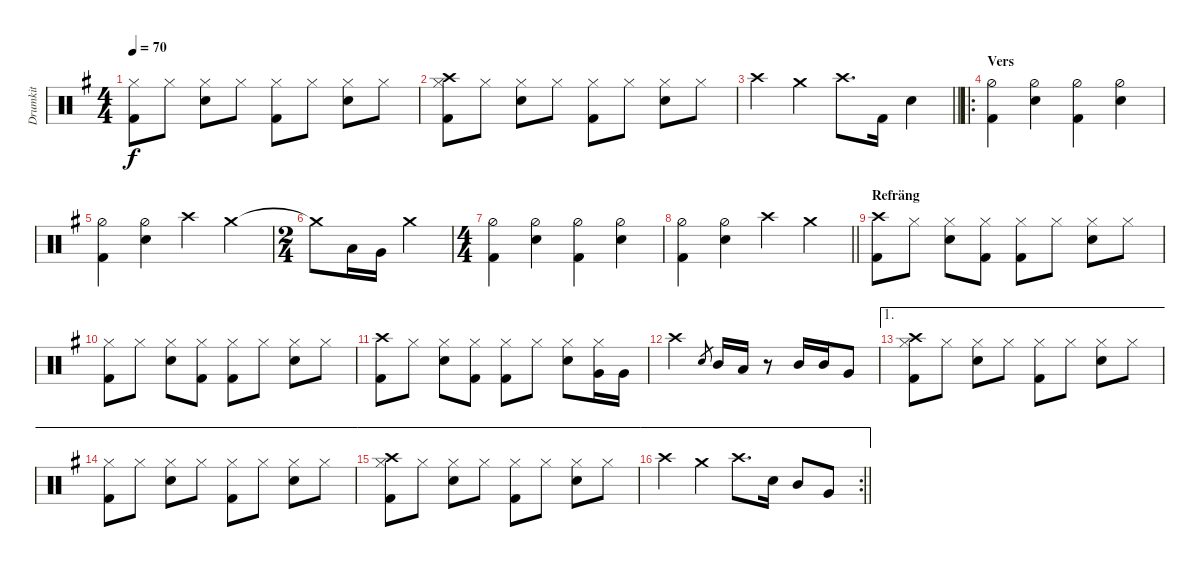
\track ("Drumkit" "Drumkit") {instrument percussion}
\staff {score}
\articulation defaults
\ts (4 4)
\tempo 70
\clef neutral
\ks eminor
("Hi-Hat (closed)" "Kick (hit) 2").8{dy f} "Hi-Hat (closed)".8 ("Hi-Hat (closed)" "Snare (hit) 2").8 "Hi-Hat (closed)".8 ("Hi-Hat (closed)" "Kick (hit) 2").8 "Hi-Hat (closed)".8 ("Hi-Hat (closed)" "Snare (hit) 2").8 "Hi-Hat (closed)".8 |
("Hi-Hat (closed)" "Kick (hit) 2" "Crash high (hit)").8 "Hi-Hat (closed)".8 ("Hi-Hat (closed)" "Snare (hit) 2").8 "Hi-Hat (closed)".8 ("Hi-Hat (closed)" "Kick (hit) 2").8 "Hi-Hat (closed)".8 ("Hi-Hat (closed)" "Snare (hit) 2").8 "Hi-Hat (closed)".8 |
\barLineRight lightlight "Crash high (hit)".4 "Crash medium (hit)".4 "Crash high (hit)".8{d} "Kick (hit) 2".16 "Snare (hit) 2".4
|
\ro
\section ("" "Vers")
("Hi-Hat (half)" "Kick (hit) 2").4 ("Hi-Hat (half)" "Snare (hit) 2").4 ("Hi-Hat (half)" "Kick (hit) 2").4 ("Hi-Hat (half)" "Snare (hit) 2").4 |
("Hi-Hat (half)" "Kick (hit) 2").4 ("Hi-Hat (half)" "Snare (hit) 2").4 "Crash high (hit)".4 "Crash medium (hit)".4 |
\ts (2 4)
"Crash medium (hit)"{t}.8 "Low Tom (hit)".16 "Very Low Tom (hit)".16 "Crash medium (hit)".4 |
\ts (4 4)
("Hi-Hat (half)" "Kick (hit) 2").4 ("Hi-Hat (half)" "Snare (hit) 2").4 ("Hi-Hat (half)" "Kick (hit) 2").4 ("Hi-Hat (half)" "Snare (hit) 2").4 |
\barLineRight lightlight
("Hi-Hat (half)" "Kick (hit) 2").4 ("Hi-Hat (half)" "Snare (hit) 2").4 "Crash high (hit)".4 "Crash medium (hit)".4 |
\section ("" "Refräng")
("Crash high (hit)" "Kick (hit) 2").8 "Hi-Hat (closed)".8 ("Snare (hit) 2" "Hi-Hat (closed)").8 ("Kick (hit) 2" "Hi-Hat (closed)").8 ("Kick (hit) 2" "Hi-Hat (closed)").8 "Hi-Hat (closed)".8 ("Snare (hit) 2" "Hi-Hat (closed)").8 "Hi-Hat (closed)".8 |
("Hi-Hat (closed)" "Kick (hit) 2").8 "Hi-Hat (closed)".8 ("Snare (hit) 2" "Hi-Hat (closed)").8 ("Kick (hit) 2" "Hi-Hat (closed)").8 ("Kick (hit) 2" "Hi-Hat (closed)").8 "Hi-Hat (closed)".8 ("Snare (hit) 2" "Hi-Hat (closed)").8 "Hi-Hat (closed)".8 |
("Crash high (hit)" "Kick (hit) 2").8 "Hi-Hat (closed)".8 ("Snare (hit) 2" "Hi-Hat (closed)").8 ("Kick (hit) 2" "Hi-Hat (closed)").8 ("Kick (hit) 2" "Hi-Hat (closed)").8 "Hi-Hat (closed)".8 ("Snare (hit) 2" "Hi-Hat (closed)").8 ("Hi-Hat (closed)" "Very Low Tom (hit)").16 "Very Low Tom (hit)".16 |
"Crash high (hit)".2 "Snare (hit)".8{gr} "Mid Tom (hit)".16 "Low Tom (hit)".16 r.8 "Mid Tom (hit)".16 "Mid Tom (hit)".16 "Very Low Tom (hit)".8 |
\ae 1
("Hi-Hat (closed)" "Kick (hit) 2" "Crash high (hit)").8 "Hi-Hat (closed)".8 ("Hi-Hat (closed)" "Snare (hit) 2").8 "Hi-Hat (closed)".8 ("Hi-Hat (closed)" "Kick (hit) 2").8 "Hi-Hat (closed)".8 ("Hi-Hat (closed)" "Snare (hit) 2").8 "Hi-Hat (closed)".8 |
\ae 1
("Hi-Hat (closed)" "Kick (hit) 2").8 "Hi-Hat (closed)".8 ("Hi-Hat (closed)" "Snare (hit) 2").8 "Hi-Hat (closed)".8 ("Hi-Hat (closed)" "Kick (hit) 2").8 "Hi-Hat (closed)".8 ("Hi-Hat (closed)" "Snare (hit) 2").8 "Hi-Hat (closed)".8 |
\ae 1
("Hi-Hat (closed)" "Kick (hit) 2" "Crash high (hit)").8 "Hi-Hat (closed)".8 ("Hi-Hat (closed)" "Snare (hit) 2").8 "Hi-Hat (closed)".8 ("Hi-Hat (closed)" "Kick (hit) 2").8 "Hi-Hat (closed)".8 ("Hi-Hat (closed)" "Snare (hit) 2").8 "Hi-Hat (closed)".8 |
\ae 1
\rc 2
\barLineRight lightlight "Crash high (hit)".4 "Crash medium (hit)".4 "Crash high (hit)".8{d} "Snare (hit) 2".16 "Mid Tom (hit)".8 "Very Low Tom (hit)".8
